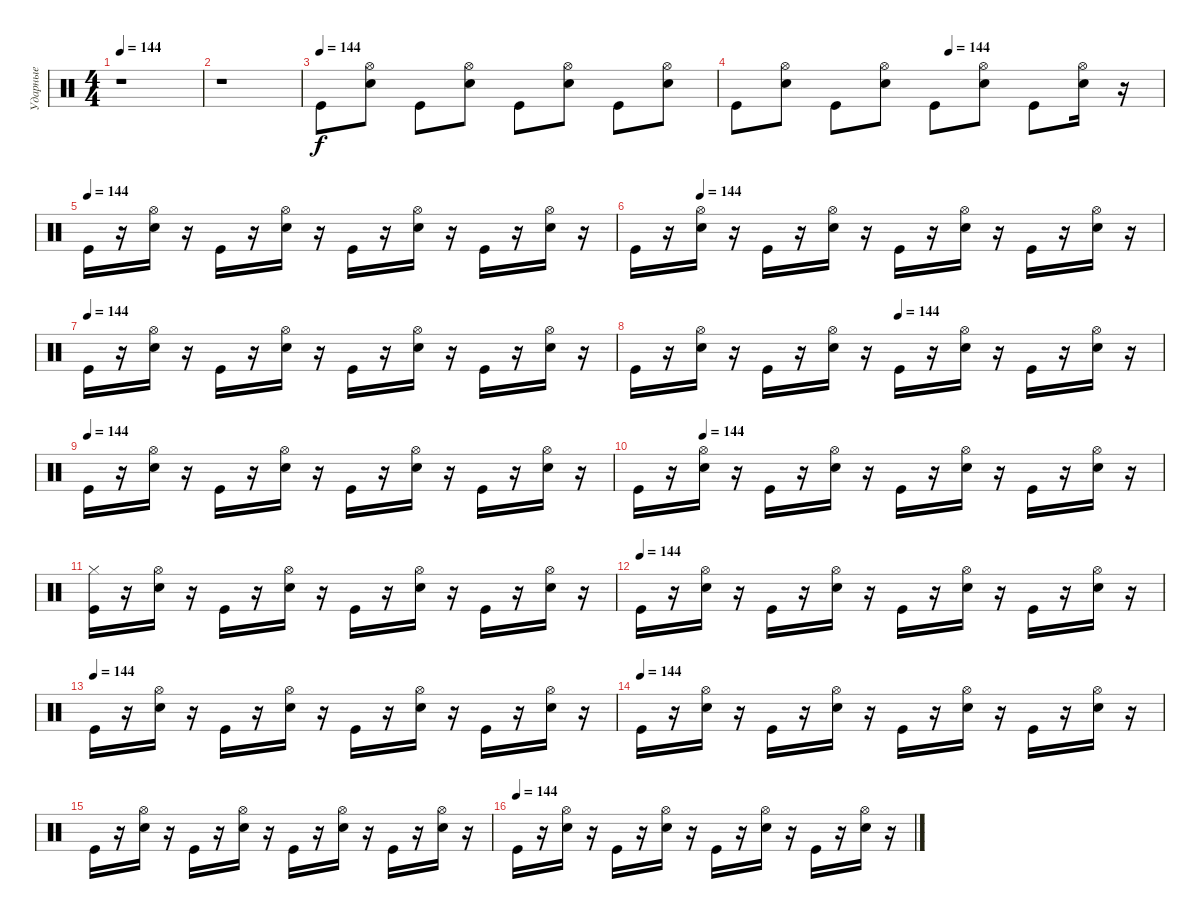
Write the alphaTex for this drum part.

\track ("Ударные" "Ударные") {instrument percussion}
\staff {score}
\articulation defaults
\ts (4 4)
\tempo 144
\clef neutral
\ks c
r.1{dy f} |
r.1 |
\tempo (144)
"Kick (hit)".8 ("Snare (hit) 2" "Hi-Hat (open)").8 "Kick (hit)".8 ("Snare (hit) 2" "Hi-Hat (open)").8 "Kick (hit)".8 ("Snare (hit) 2" "Hi-Hat (open)").8 "Kick (hit)".8 ("Snare (hit) 2" "Hi-Hat (open)").8 |
\tempo (144 0.5)
"Kick (hit)".8 ("Snare (hit) 2" "Hi-Hat (open)").8 "Kick (hit)".8 ("Snare (hit) 2" "Hi-Hat (open)").8 "Kick (hit)".8 ("Snare (hit) 2" "Hi-Hat (open)").8 "Kick (hit)".8 ("Snare (hit) 2" "Hi-Hat (open)").16 r.16 |
\tempo (144)
"Kick (hit)".16 r.16 ("Snare (hit) 2" "Hi-Hat (open)").16 r.16 "Kick (hit)".16 r.16 ("Snare (hit) 2" "Hi-Hat (open)").16 r.16 "Kick (hit)".16 r.16 ("Snare (hit) 2" "Hi-Hat (open)").16 r.16 "Kick (hit)".16 r.16 ("Snare (hit) 2" "Hi-Hat (open)").16 r.16 |
\tempo (144 0.125)
"Kick (hit)".16 r.16 ("Snare (hit) 2" "Hi-Hat (open)").16 r.16 "Kick (hit)".16 r.16 ("Snare (hit) 2" "Hi-Hat (open)").16 r.16 "Kick (hit)".16 r.16 ("Snare (hit) 2" "Hi-Hat (open)").16 r.16 "Kick (hit)".16 r.16 ("Snare (hit) 2" "Hi-Hat (open)").16 r.16 |
\tempo (144)
"Kick (hit)".16 r.16 ("Snare (hit) 2" "Hi-Hat (open)").16 r.16 "Kick (hit)".16 r.16 ("Snare (hit) 2" "Hi-Hat (open)").16 r.16 "Kick (hit)".16 r.16 ("Snare (hit) 2" "Hi-Hat (open)").16 r.16 "Kick (hit)".16 r.16 ("Snare (hit) 2" "Hi-Hat (open)").16 r.16 |
\tempo (144 0.5)
"Kick (hit)".16 r.16 ("Snare (hit) 2" "Hi-Hat (open)").16 r.16 "Kick (hit)".16 r.16 ("Snare (hit) 2" "Hi-Hat (open)").16 r.16 "Kick (hit)".16 r.16 ("Snare (hit) 2" "Hi-Hat (open)").16 r.16 "Kick (hit)".16 r.16 ("Snare (hit) 2" "Hi-Hat (open)").16 r.16 |
\tempo (144)
"Kick (hit)".16 r.16 ("Snare (hit) 2" "Hi-Hat (open)").16 r.16 "Kick (hit)".16 r.16 ("Snare (hit) 2" "Hi-Hat (open)").16 r.16 "Kick (hit)".16 r.16 ("Snare (hit) 2" "Hi-Hat (open)").16 r.16 "Kick (hit)".16 r.16 ("Snare (hit) 2" "Hi-Hat (open)").16 r.16 |
\tempo (144 0.125)
"Kick (hit)".16 r.16 ("Snare (hit) 2" "Hi-Hat (open)").16 r.16 "Kick (hit)".16 r.16 ("Snare (hit) 2" "Hi-Hat (open)").16 r.16 "Kick (hit)".16 r.16 ("Snare (hit) 2" "Hi-Hat (open)").16 r.16 "Kick (hit)".16 r.16 ("Snare (hit) 2" "Hi-Hat (open)").16 r.16 |
("Kick (hit)" "Hi-Hat (closed)").16 r.16 ("Snare (hit) 2" "Hi-Hat (open)").16 r.16 "Kick (hit)".16 r.16 ("Snare (hit) 2" "Hi-Hat (open)").16 r.16 "Kick (hit)".16 r.16 ("Snare (hit) 2" "Hi-Hat (open)").16 r.16 "Kick (hit)".16 r.16 ("Snare (hit) 2" "Hi-Hat (open)").16 r.16 |
\tempo (144)
"Kick (hit)".16 r.16 ("Snare (hit) 2" "Hi-Hat (open)").16 r.16 "Kick (hit)".16 r.16 ("Snare (hit) 2" "Hi-Hat (open)").16 r.16 "Kick (hit)".16 r.16 ("Snare (hit) 2" "Hi-Hat (open)").16 r.16 "Kick (hit)".16 r.16 ("Snare (hit) 2" "Hi-Hat (open)").16 r.16 |
\tempo (144)
"Kick (hit)".16 r.16 ("Snare (hit) 2" "Hi-Hat (open)").16 r.16 "Kick (hit)".16 r.16 ("Snare (hit) 2" "Hi-Hat (open)").16 r.16 "Kick (hit)".16 r.16 ("Snare (hit) 2" "Hi-Hat (open)").16 r.16 "Kick (hit)".16 r.16 ("Snare (hit) 2" "Hi-Hat (open)").16 r.16 |
\tempo (144)
"Kick (hit)".16 r.16 ("Snare (hit) 2" "Hi-Hat (open)").16 r.16 "Kick (hit)".16 r.16 ("Snare (hit) 2" "Hi-Hat (open)").16 r.16 "Kick (hit)".16 r.16 ("Snare (hit) 2" "Hi-Hat (open)").16 r.16 "Kick (hit)".16 r.16 ("Snare (hit) 2" "Hi-Hat (open)").16 r.16 |
"Kick (hit)".16 r.16 ("Snare (hit) 2" "Hi-Hat (open)").16 r.16 "Kick (hit)".16 r.16 ("Snare (hit) 2" "Hi-Hat (open)").16 r.16 "Kick (hit)".16 r.16 ("Snare (hit) 2" "Hi-Hat (open)").16 r.16 "Kick (hit)".16 r.16 ("Snare (hit) 2" "Hi-Hat (open)").16 r.16 |
\tempo (144)
"Kick (hit)".16 r.16 ("Snare (hit) 2" "Hi-Hat (open)").16 r.16 "Kick (hit)".16 r.16 ("Snare (hit) 2" "Hi-Hat (open)").16 r.16 "Kick (hit)".16 r.16 ("Snare (hit) 2" "Hi-Hat (open)").16 r.16 "Kick (hit)".16 r.16 ("Snare (hit) 2" "Hi-Hat (open)").16 r.16
